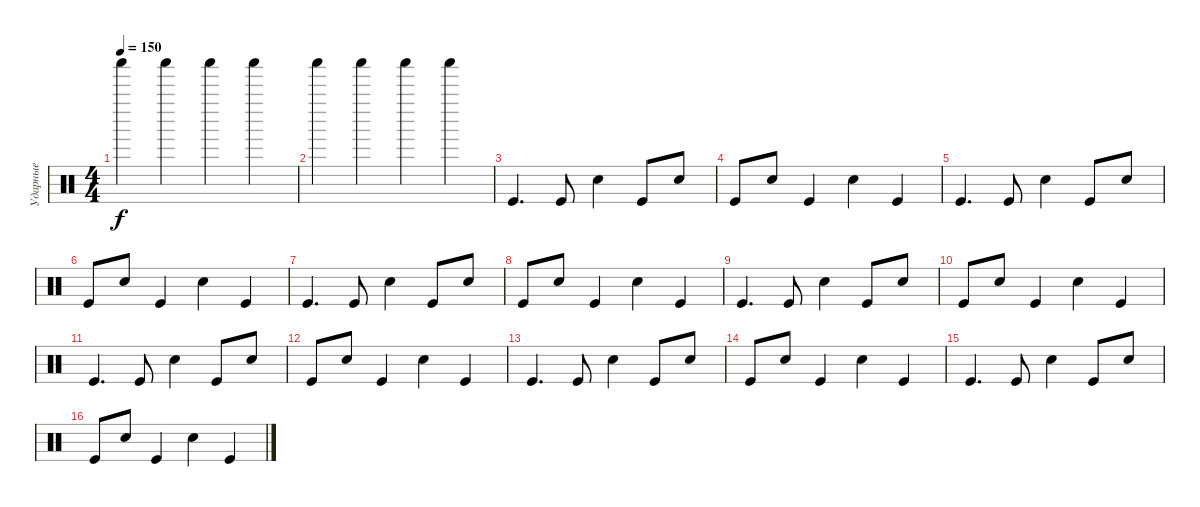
\track ("Ударные" "Ударные") {instrument percussion}
\staff {score}
\articulation defaults
\ts (4 4)
\tempo 150
\clef neutral
\ks c "Shaker (hit)".4{dy f} "Shaker (hit)".4 "Shaker (hit)".4 "Shaker (hit)".4
|
"Shaker (hit)".4 "Shaker (hit)".4 "Shaker (hit)".4 "Shaker (hit)".4 |
"Kick (hit)".4{d} "Kick (hit)".8 "Electric Snare (hit)".4 "Kick (hit)".8 "Electric Snare (hit)".8 |
"Kick (hit)".8 "Electric Snare (hit)".8 "Kick (hit)".4 "Electric Snare (hit)".4 "Kick (hit)".4 |
"Kick (hit)".4{d} "Kick (hit)".8 "Electric Snare (hit)".4 "Kick (hit)".8 "Electric Snare (hit)".8 |
"Kick (hit)".8 "Electric Snare (hit)".8 "Kick (hit)".4 "Electric Snare (hit)".4 "Kick (hit)".4 |
"Kick (hit)".4{d} "Kick (hit)".8 "Electric Snare (hit)".4 "Kick (hit)".8 "Electric Snare (hit)".8 |
"Kick (hit)".8 "Electric Snare (hit)".8 "Kick (hit)".4 "Electric Snare (hit)".4 "Kick (hit)".4 |
"Kick (hit)".4{d} "Kick (hit)".8 "Electric Snare (hit)".4 "Kick (hit)".8 "Electric Snare (hit)".8 |
"Kick (hit)".8 "Electric Snare (hit)".8 "Kick (hit)".4 "Electric Snare (hit)".4 "Kick (hit)".4 |
"Kick (hit)".4{d} "Kick (hit)".8 "Electric Snare (hit)".4 "Kick (hit)".8 "Electric Snare (hit)".8 |
"Kick (hit)".8 "Electric Snare (hit)".8 "Kick (hit)".4 "Electric Snare (hit)".4 "Kick (hit)".4 |
"Kick (hit)".4{d} "Kick (hit)".8 "Electric Snare (hit)".4 "Kick (hit)".8 "Electric Snare (hit)".8 |
"Kick (hit)".8 "Electric Snare (hit)".8 "Kick (hit)".4 "Electric Snare (hit)".4 "Kick (hit)".4 |
"Kick (hit)".4{d} "Kick (hit)".8 "Electric Snare (hit)".4 "Kick (hit)".8 "Electric Snare (hit)".8 |
"Kick (hit)".8 "Electric Snare (hit)".8 "Kick (hit)".4 "Electric Snare (hit)".4 "Kick (hit)".4
